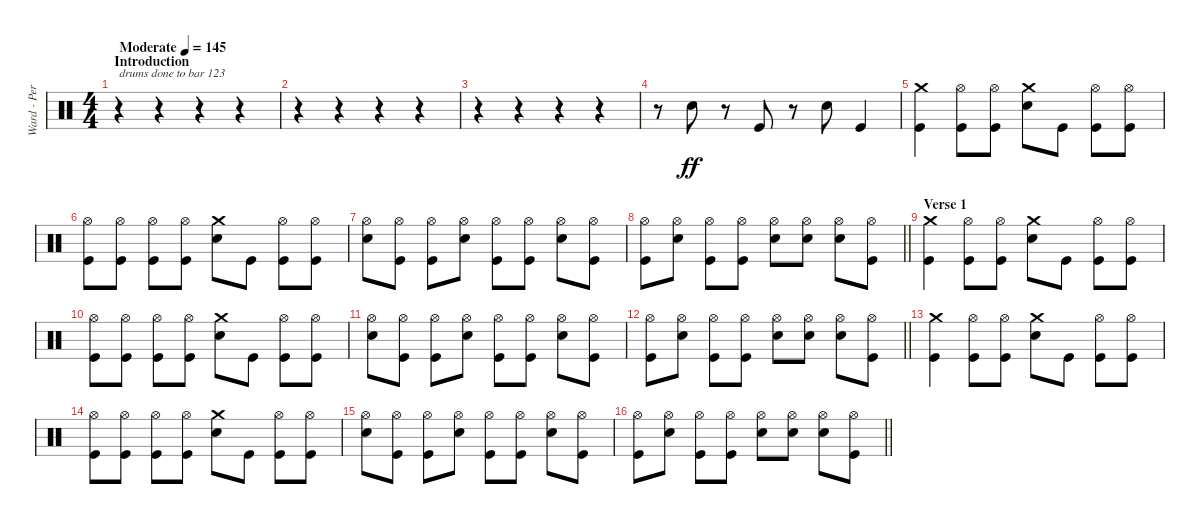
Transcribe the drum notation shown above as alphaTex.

\track ("Ward - Percussion" "Ward - Per") {instrument percussion}
\staff {score}
\articulation defaults
\ts (4 4)
\section ("" "Introduction")
\tempo (145 "Moderate")
\clef neutral
\ks c
r.4{txt "drums done to bar 123" dy ff} r.4 r.4 r.4 |
r.4 r.4 r.4 r.4 |
r.4 r.4 r.4 r.4 |
r.8 "Snare (hit) 2".8 r.8 "Kick (hit)".8 r.8 "Snare (hit) 2".8 "Kick (hit)".4 |
("Kick (hit)" "Crash medium (hit)").4 ("Hi-Hat (open)" "Kick (hit)").8 ("Hi-Hat (open)" "Kick (hit)").8 ("Snare (hit) 2" "Crash medium (hit)").8 "Kick (hit)".8 ("Hi-Hat (open)" "Kick (hit)").8 ("Hi-Hat (open)" "Kick (hit)").8 |
("Hi-Hat (open)" "Kick (hit)").8 ("Hi-Hat (open)" "Kick (hit)").8 ("Kick (hit)" "Hi-Hat (open)").8 ("Hi-Hat (open)" "Kick (hit)").8 ("Snare (hit) 2" "Crash medium (hit)").8 "Kick (hit)".8 ("Hi-Hat (open)" "Kick (hit)").8 ("Hi-Hat (open)" "Kick (hit)").8 |
("Hi-Hat (open)" "Snare (hit) 2").8 ("Hi-Hat (open)" "Kick (hit)").8 ("Hi-Hat (open)" "Kick (hit)").8 ("Snare (hit) 2" "Hi-Hat (open)").8 ("Hi-Hat (open)" "Kick (hit)").8 ("Hi-Hat (open)" "Kick (hit)").8 ("Snare (hit) 2" "Hi-Hat (open)").8 ("Hi-Hat (open)" "Kick (hit)").8 |
\barLineRight lightlight
("Hi-Hat (open)" "Kick (hit)").8 ("Snare (hit) 2" "Hi-Hat (open)").8 ("Hi-Hat (open)" "Kick (hit)").8 ("Hi-Hat (open)" "Kick (hit)").8 ("Hi-Hat (open)" "Snare (hit) 2").8 ("Hi-Hat (open)" "Snare (hit) 2").8 ("Hi-Hat (open)" "Snare (hit) 2").8 ("Hi-Hat (open)" "Kick (hit)").8 |
\section ("" "Verse 1")
("Kick (hit)" "Crash medium (hit)").4 ("Hi-Hat (open)" "Kick (hit)").8 ("Hi-Hat (open)" "Kick (hit)").8 ("Snare (hit) 2" "Crash medium (hit)").8 "Kick (hit)".8 ("Hi-Hat (open)" "Kick (hit)").8 ("Hi-Hat (open)" "Kick (hit)").8 |
("Hi-Hat (open)" "Kick (hit)").8 ("Hi-Hat (open)" "Kick (hit)").8 ("Kick (hit)" "Hi-Hat (open)").8 ("Hi-Hat (open)" "Kick (hit)").8 ("Snare (hit) 2" "Crash medium (hit)").8 "Kick (hit)".8 ("Hi-Hat (open)" "Kick (hit)").8 ("Hi-Hat (open)" "Kick (hit)").8 |
("Hi-Hat (open)" "Snare (hit) 2").8 ("Hi-Hat (open)" "Kick (hit)").8 ("Hi-Hat (open)" "Kick (hit)").8 ("Snare (hit) 2" "Hi-Hat (open)").8 ("Hi-Hat (open)" "Kick (hit)").8 ("Hi-Hat (open)" "Kick (hit)").8 ("Snare (hit) 2" "Hi-Hat (open)").8 ("Hi-Hat (open)" "Kick (hit)").8 |
\barLineRight lightlight
("Hi-Hat (open)" "Kick (hit)").8 ("Snare (hit) 2" "Hi-Hat (open)").8 ("Hi-Hat (open)" "Kick (hit)").8 ("Hi-Hat (open)" "Kick (hit)").8 ("Hi-Hat (open)" "Snare (hit) 2").8 ("Hi-Hat (open)" "Snare (hit) 2").8 ("Hi-Hat (open)" "Snare (hit) 2").8 ("Hi-Hat (open)" "Kick (hit)").8 |
("Kick (hit)" "Crash medium (hit)").4 ("Hi-Hat (open)" "Kick (hit)").8 ("Hi-Hat (open)" "Kick (hit)").8 ("Snare (hit) 2" "Crash medium (hit)").8 "Kick (hit)".8 ("Hi-Hat (open)" "Kick (hit)").8 ("Hi-Hat (open)" "Kick (hit)").8 |
("Hi-Hat (open)" "Kick (hit)").8 ("Hi-Hat (open)" "Kick (hit)").8 ("Kick (hit)" "Hi-Hat (open)").8 ("Hi-Hat (open)" "Kick (hit)").8 ("Snare (hit) 2" "Crash medium (hit)").8 "Kick (hit)".8 ("Hi-Hat (open)" "Kick (hit)").8 ("Hi-Hat (open)" "Kick (hit)").8 |
("Hi-Hat (open)" "Snare (hit) 2").8 ("Hi-Hat (open)" "Kick (hit)").8 ("Hi-Hat (open)" "Kick (hit)").8 ("Snare (hit) 2" "Hi-Hat (open)").8 ("Hi-Hat (open)" "Kick (hit)").8 ("Hi-Hat (open)" "Kick (hit)").8 ("Snare (hit) 2" "Hi-Hat (open)").8 ("Hi-Hat (open)" "Kick (hit)").8 |
\barLineRight lightlight
("Hi-Hat (open)" "Kick (hit)").8 ("Snare (hit) 2" "Hi-Hat (open)").8 ("Hi-Hat (open)" "Kick (hit)").8 ("Hi-Hat (open)" "Kick (hit)").8 ("Hi-Hat (open)" "Snare (hit) 2").8 ("Hi-Hat (open)" "Snare (hit) 2").8 ("Hi-Hat (open)" "Snare (hit) 2").8 ("Hi-Hat (open)" "Kick (hit)").8
